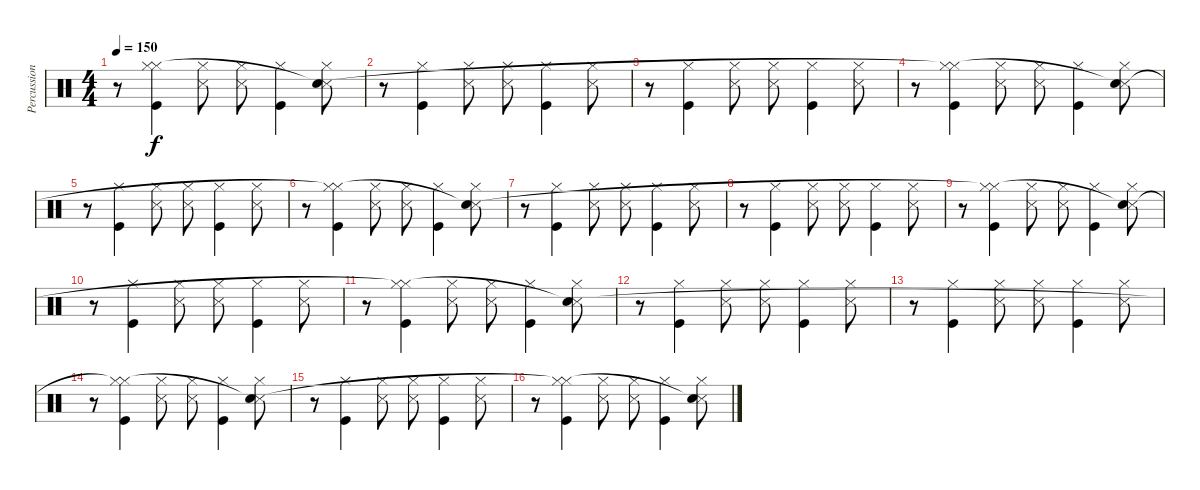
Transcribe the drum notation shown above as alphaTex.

\track ("Percussion" "Percussion") {instrument percussion}
\staff {score}
\articulation defaults
\ts (4 4)
\tempo 150
\clef neutral
\ks c
r.8{dy f} ("Kick (hit)" "Hi-Hat (closed)" "Hi-Hat (closed)"{t}).4 ("Snare (side stick) 3" "Hi-Hat (closed)").8 ("Snare (side stick) 3" "Hi-Hat (closed)").8 ("Kick (hit)" "Hi-Hat (closed)").4 ("Snare (side stick) 3" "Hi-Hat (closed)" "Snare (hit)"{t}).8 |
r.8 ("Kick (hit)" "Hi-Hat (closed)").4 ("Snare (side stick) 3" "Hi-Hat (closed)").8 ("Snare (side stick) 3" "Hi-Hat (closed)").8 ("Kick (hit)" "Hi-Hat (closed)").4 ("Snare (side stick) 3" "Hi-Hat (closed)").8 |
r.8 ("Kick (hit)" "Hi-Hat (closed)").4 ("Snare (side stick) 3" "Hi-Hat (closed)").8 ("Snare (side stick) 3" "Hi-Hat (closed)").8 ("Kick (hit)" "Hi-Hat (closed)").4 ("Snare (side stick) 3" "Hi-Hat (closed)").8 |
r.8 ("Kick (hit)" "Hi-Hat (closed)" "Hi-Hat (closed)"{t}).4 ("Snare (side stick) 3" "Hi-Hat (closed)").8 ("Snare (side stick) 3" "Hi-Hat (closed)").8 ("Kick (hit)" "Hi-Hat (closed)").4 ("Snare (side stick) 3" "Hi-Hat (closed)" "Snare (hit)"{t}).8 |
r.8 ("Kick (hit)" "Hi-Hat (closed)").4 ("Snare (side stick) 3" "Hi-Hat (closed)").8 ("Snare (side stick) 3" "Hi-Hat (closed)").8 ("Kick (hit)" "Hi-Hat (closed)").4 ("Snare (side stick) 3" "Hi-Hat (closed)").8 |
r.8 ("Kick (hit)" "Hi-Hat (closed)" "Hi-Hat (closed)"{t}).4 ("Snare (side stick) 3" "Hi-Hat (closed)").8 ("Snare (side stick) 3" "Hi-Hat (closed)").8 ("Kick (hit)" "Hi-Hat (closed)").4 ("Snare (side stick) 3" "Hi-Hat (closed)" "Snare (hit)"{t}).8 |
r.8 ("Kick (hit)" "Hi-Hat (closed)").4 ("Snare (side stick) 3" "Hi-Hat (closed)").8 ("Snare (side stick) 3" "Hi-Hat (closed)").8 ("Kick (hit)" "Hi-Hat (closed)").4 ("Snare (side stick) 3" "Hi-Hat (closed)").8 |
r.8 ("Kick (hit)" "Hi-Hat (closed)").4 ("Snare (side stick) 3" "Hi-Hat (closed)").8 ("Snare (side stick) 3" "Hi-Hat (closed)").8 ("Kick (hit)" "Hi-Hat (closed)").4 ("Snare (side stick) 3" "Hi-Hat (closed)").8 |
r.8 ("Kick (hit)" "Hi-Hat (closed)" "Hi-Hat (closed)"{t}).4 ("Snare (side stick) 3" "Hi-Hat (closed)").8 ("Snare (side stick) 3" "Hi-Hat (closed)").8 ("Kick (hit)" "Hi-Hat (closed)").4 ("Snare (side stick) 3" "Hi-Hat (closed)" "Snare (hit)"{t}).8 |
r.8 ("Kick (hit)" "Hi-Hat (closed)").4 ("Snare (side stick) 3" "Hi-Hat (closed)").8 ("Snare (side stick) 3" "Hi-Hat (closed)").8 ("Kick (hit)" "Hi-Hat (closed)").4 ("Snare (side stick) 3" "Hi-Hat (closed)").8 |
r.8 ("Kick (hit)" "Hi-Hat (closed)" "Hi-Hat (closed)"{t}).4 ("Snare (side stick) 3" "Hi-Hat (closed)").8 ("Snare (side stick) 3" "Hi-Hat (closed)").8 ("Kick (hit)" "Hi-Hat (closed)").4 ("Snare (side stick) 3" "Hi-Hat (closed)" "Snare (hit)"{t}).8 |
r.8 ("Kick (hit)" "Hi-Hat (closed)").4 ("Snare (side stick) 3" "Hi-Hat (closed)").8 ("Snare (side stick) 3" "Hi-Hat (closed)").8 ("Kick (hit)" "Hi-Hat (closed)").4 ("Snare (side stick) 3" "Hi-Hat (closed)").8 |
r.8 ("Kick (hit)" "Hi-Hat (closed)").4 ("Snare (side stick) 3" "Hi-Hat (closed)").8 ("Snare (side stick) 3" "Hi-Hat (closed)").8 ("Kick (hit)" "Hi-Hat (closed)").4 ("Snare (side stick) 3" "Hi-Hat (closed)").8 |
r.8 ("Kick (hit)" "Hi-Hat (closed)" "Hi-Hat (closed)"{t}).4 ("Snare (side stick) 3" "Hi-Hat (closed)").8 ("Snare (side stick) 3" "Hi-Hat (closed)").8 ("Kick (hit)" "Hi-Hat (closed)").4 ("Snare (side stick) 3" "Hi-Hat (closed)" "Snare (hit)"{t}).8 |
r.8 ("Kick (hit)" "Hi-Hat (closed)").4 ("Snare (side stick) 3" "Hi-Hat (closed)").8 ("Snare (side stick) 3" "Hi-Hat (closed)").8 ("Kick (hit)" "Hi-Hat (closed)").4 ("Snare (side stick) 3" "Hi-Hat (closed)").8 |
r.8 ("Kick (hit)" "Hi-Hat (closed)" "Hi-Hat (closed)"{t}).4 ("Snare (side stick) 3" "Hi-Hat (closed)").8 ("Snare (side stick) 3" "Hi-Hat (closed)").8 ("Kick (hit)" "Hi-Hat (closed)").4 ("Snare (side stick) 3" "Hi-Hat (closed)" "Snare (hit)"{t}).8
